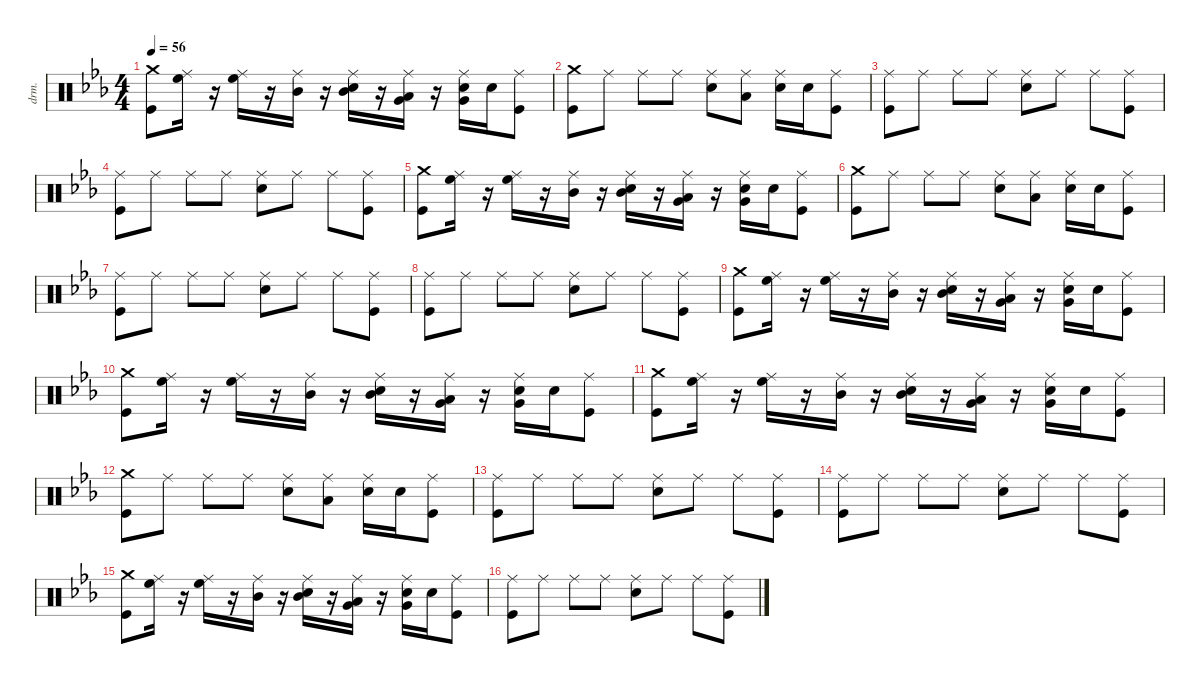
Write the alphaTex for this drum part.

\defaultSystemsLayout 4
\hideDynamics
\bracketExtendMode nobrackets
\otherSystemsTrackNameOrientation horizontal
\track ("Percussion" "drm.") {instrument percussion}
\staff {score}
\articulation defaults
\ts (4 4)
\tempo 56
\clef neutral
\ks eb
("Crash medium (hit)"{acc forcenatural} "Kick (hit)"{acc forcenatural}).8{dy f beam Down} ("High Floor Tom (hit)"{acc forcenatural} "Ride (middle)"{acc forcenatural}).16{beam Down} r.16{beam Down} ("High Floor Tom (hit)"{acc forcenatural} "Ride (middle)"{acc forcenatural}).16{beam Down} r.16{beam Down} ("Mid Tom (hit)"{acc forcenatural} "Ride (middle)"{acc forcenatural}).16{beam Down} r.16{beam Down} ("Mid Tom (hit)"{acc forcenatural} "Snare (hit) 2"{acc forcenatural} "Ride (middle)"{acc forcenatural}).16{beam Down} r.16{beam Down} ("Very Low Tom (hit)"{acc forcenatural} "Low Floor Tom (hit)"{acc forcenatural} "Ride (middle)"{acc forcenatural}).16{beam Down} r.16{beam Down} ("Very Low Tom (hit)"{acc forcenatural} "Snare (hit) 2"{acc forcenatural} "Ride (middle)"{acc forcenatural}).16{beam Down} "Snare (hit) 2"{acc forcenatural}.16{beam Down} ("Kick (hit)"{acc forcenatural} "Ride (middle)"{acc forcenatural}).8{beam Down} |
("Crash medium (hit)"{acc forcenatural} "Kick (hit)"{acc forcenatural}).8{beam Down} "Ride (middle)"{acc forcenatural}.8{beam Down} "Ride (middle)"{acc forcenatural}.8{beam Down} "Ride (middle)"{acc forcenatural}.8{beam Down} ("Snare (hit) 2"{acc forcenatural} "Ride (middle)"{acc forcenatural}).8{beam Down} ("Low Floor Tom (hit)"{acc forcenatural} "Ride (middle)"{acc forcenatural}).8{beam Down} ("Snare (hit) 2"{acc forcenatural} "Ride (middle)"{acc forcenatural}).16{beam Down} "Snare (hit) 2"{acc forcenatural}.16{beam Down} ("Kick (hit)"{acc forcenatural} "Ride (middle)"{acc forcenatural}).8{beam Down} |
("Ride (middle)"{acc forcenatural} "Kick (hit)"{acc forcenatural}).8{beam Down} "Ride (middle)"{acc forcenatural}.8{beam Down} "Ride (middle)"{acc forcenatural}.8{beam Down} "Ride (middle)"{acc forcenatural}.8{beam Down} ("Snare (hit) 2"{acc forcenatural} "Ride (middle)"{acc forcenatural}).8{beam Down} "Ride (middle)"{acc forcenatural}.8{beam Down} "Ride (middle)"{acc forcenatural}.8{beam Down} ("Kick (hit)"{acc forcenatural} "Ride (middle)"{acc forcenatural}).8{beam Down} |
("Ride (middle)"{acc forcenatural} "Kick (hit)"{acc forcenatural}).8{beam Down} "Ride (middle)"{acc forcenatural}.8{beam Down} "Ride (middle)"{acc forcenatural}.8{beam Down} "Ride (middle)"{acc forcenatural}.8{beam Down} ("Snare (hit) 2"{acc forcenatural} "Ride (middle)"{acc forcenatural}).8{beam Down} "Ride (middle)"{acc forcenatural}.8{beam Down} "Ride (middle)"{acc forcenatural}.8{beam Down} ("Kick (hit)"{acc forcenatural} "Ride (middle)"{acc forcenatural}).8{beam Down} |
("Crash medium (hit)"{acc forcenatural} "Kick (hit)"{acc forcenatural}).8{beam Down} ("High Floor Tom (hit)"{acc forcenatural} "Ride (middle)"{acc forcenatural}).16{beam Down} r.16{beam Down} ("High Floor Tom (hit)"{acc forcenatural} "Ride (middle)"{acc forcenatural}).16{beam Down} r.16{beam Down} ("Mid Tom (hit)"{acc forcenatural} "Ride (middle)"{acc forcenatural}).16{beam Down} r.16{beam Down} ("Mid Tom (hit)"{acc forcenatural} "Snare (hit) 2"{acc forcenatural} "Ride (middle)"{acc forcenatural}).16{beam Down} r.16{beam Down} ("Very Low Tom (hit)"{acc forcenatural} "Low Floor Tom (hit)"{acc forcenatural} "Ride (middle)"{acc forcenatural}).16{beam Down} r.16{beam Down} ("Very Low Tom (hit)"{acc forcenatural} "Snare (hit) 2"{acc forcenatural} "Ride (middle)"{acc forcenatural}).16{beam Down} "Snare (hit) 2"{acc forcenatural}.16{beam Down} ("Kick (hit)"{acc forcenatural} "Ride (middle)"{acc forcenatural}).8{beam Down} |
("Crash medium (hit)"{acc forcenatural} "Kick (hit)"{acc forcenatural}).8{beam Down} "Ride (middle)"{acc forcenatural}.8{beam Down} "Ride (middle)"{acc forcenatural}.8{beam Down} "Ride (middle)"{acc forcenatural}.8{beam Down} ("Snare (hit) 2"{acc forcenatural} "Ride (middle)"{acc forcenatural}).8{beam Down} ("Low Floor Tom (hit)"{acc forcenatural} "Ride (middle)"{acc forcenatural}).8{beam Down} ("Snare (hit) 2"{acc forcenatural} "Ride (middle)"{acc forcenatural}).16{beam Down} "Snare (hit) 2"{acc forcenatural}.16{beam Down} ("Kick (hit)"{acc forcenatural} "Ride (middle)"{acc forcenatural}).8{beam Down} |
("Ride (middle)"{acc forcenatural} "Kick (hit)"{acc forcenatural}).8{beam Down} "Ride (middle)"{acc forcenatural}.8{beam Down} "Ride (middle)"{acc forcenatural}.8{beam Down} "Ride (middle)"{acc forcenatural}.8{beam Down} ("Snare (hit) 2"{acc forcenatural} "Ride (middle)"{acc forcenatural}).8{beam Down} "Ride (middle)"{acc forcenatural}.8{beam Down} "Ride (middle)"{acc forcenatural}.8{beam Down} ("Kick (hit)"{acc forcenatural} "Ride (middle)"{acc forcenatural}).8{beam Down} |
("Ride (middle)"{acc forcenatural} "Kick (hit)"{acc forcenatural}).8{beam Down} "Ride (middle)"{acc forcenatural}.8{beam Down} "Ride (middle)"{acc forcenatural}.8{beam Down} "Ride (middle)"{acc forcenatural}.8{beam Down} ("Snare (hit) 2"{acc forcenatural} "Ride (middle)"{acc forcenatural}).8{beam Down} "Ride (middle)"{acc forcenatural}.8{beam Down} "Ride (middle)"{acc forcenatural}.8{beam Down} ("Kick (hit)"{acc forcenatural} "Ride (middle)"{acc forcenatural}).8{beam Down} |
("Crash medium (hit)"{acc forcenatural} "Kick (hit)"{acc forcenatural}).8{beam Down} ("High Floor Tom (hit)"{acc forcenatural} "Ride (middle)"{acc forcenatural}).16{beam Down} r.16{beam Down} ("High Floor Tom (hit)"{acc forcenatural} "Ride (middle)"{acc forcenatural}).16{beam Down} r.16{beam Down} ("Mid Tom (hit)"{acc forcenatural} "Ride (middle)"{acc forcenatural}).16{beam Down} r.16{beam Down} ("Mid Tom (hit)"{acc forcenatural} "Snare (hit) 2"{acc forcenatural} "Ride (middle)"{acc forcenatural}).16{beam Down} r.16{beam Down} ("Very Low Tom (hit)"{acc forcenatural} "Low Floor Tom (hit)"{acc forcenatural} "Ride (middle)"{acc forcenatural}).16{beam Down} r.16{beam Down} ("Very Low Tom (hit)"{acc forcenatural} "Snare (hit) 2"{acc forcenatural} "Ride (middle)"{acc forcenatural}).16{beam Down} "Snare (hit) 2"{acc forcenatural}.16{beam Down} ("Kick (hit)"{acc forcenatural} "Ride (middle)"{acc forcenatural}).8{beam Down} |
("Crash medium (hit)"{acc forcenatural} "Kick (hit)"{acc forcenatural}).8{beam Down} ("High Floor Tom (hit)"{acc forcenatural} "Ride (middle)"{acc forcenatural}).16{beam Down} r.16{beam Down} ("High Floor Tom (hit)"{acc forcenatural} "Ride (middle)"{acc forcenatural}).16{beam Down} r.16{beam Down} ("Mid Tom (hit)"{acc forcenatural} "Ride (middle)"{acc forcenatural}).16{beam Down} r.16{beam Down} ("Mid Tom (hit)"{acc forcenatural} "Snare (hit) 2"{acc forcenatural} "Ride (middle)"{acc forcenatural}).16{beam Down} r.16{beam Down} ("Very Low Tom (hit)"{acc forcenatural} "Low Floor Tom (hit)"{acc forcenatural} "Ride (middle)"{acc forcenatural}).16{beam Down} r.16{beam Down} ("Very Low Tom (hit)"{acc forcenatural} "Snare (hit) 2"{acc forcenatural} "Ride (middle)"{acc forcenatural}).16{beam Down} "Snare (hit) 2"{acc forcenatural}.16{beam Down} ("Kick (hit)"{acc forcenatural} "Ride (middle)"{acc forcenatural}).8{beam Down} |
("Crash medium (hit)"{acc forcenatural} "Kick (hit)"{acc forcenatural}).8{beam Down} ("High Floor Tom (hit)"{acc forcenatural} "Ride (middle)"{acc forcenatural}).16{beam Down} r.16{beam Down} ("High Floor Tom (hit)"{acc forcenatural} "Ride (middle)"{acc forcenatural}).16{beam Down} r.16{beam Down} ("Mid Tom (hit)"{acc forcenatural} "Ride (middle)"{acc forcenatural}).16{beam Down} r.16{beam Down} ("Mid Tom (hit)"{acc forcenatural} "Snare (hit) 2"{acc forcenatural} "Ride (middle)"{acc forcenatural}).16{beam Down} r.16{beam Down} ("Very Low Tom (hit)"{acc forcenatural} "Low Floor Tom (hit)"{acc forcenatural} "Ride (middle)"{acc forcenatural}).16{beam Down} r.16{beam Down} ("Very Low Tom (hit)"{acc forcenatural} "Snare (hit) 2"{acc forcenatural} "Ride (middle)"{acc forcenatural}).16{beam Down} "Snare (hit) 2"{acc forcenatural}.16{beam Down} ("Kick (hit)"{acc forcenatural} "Ride (middle)"{acc forcenatural}).8{beam Down} |
("Crash medium (hit)"{acc forcenatural} "Kick (hit)"{acc forcenatural}).8{beam Down} "Ride (middle)"{acc forcenatural}.8{beam Down} "Ride (middle)"{acc forcenatural}.8{beam Down} "Ride (middle)"{acc forcenatural}.8{beam Down} ("Snare (hit) 2"{acc forcenatural} "Ride (middle)"{acc forcenatural}).8{beam Down} ("Low Floor Tom (hit)"{acc forcenatural} "Ride (middle)"{acc forcenatural}).8{beam Down} ("Snare (hit) 2"{acc forcenatural} "Ride (middle)"{acc forcenatural}).16{beam Down} "Snare (hit) 2"{acc forcenatural}.16{beam Down} ("Kick (hit)"{acc forcenatural} "Ride (middle)"{acc forcenatural}).8{beam Down} |
("Ride (middle)"{acc forcenatural} "Kick (hit)"{acc forcenatural}).8{beam Down} "Ride (middle)"{acc forcenatural}.8{beam Down} "Ride (middle)"{acc forcenatural}.8{beam Down} "Ride (middle)"{acc forcenatural}.8{beam Down} ("Snare (hit) 2"{acc forcenatural} "Ride (middle)"{acc forcenatural}).8{beam Down} "Ride (middle)"{acc forcenatural}.8{beam Down} "Ride (middle)"{acc forcenatural}.8{beam Down} ("Kick (hit)"{acc forcenatural} "Ride (middle)"{acc forcenatural}).8{beam Down} |
("Ride (middle)"{acc forcenatural} "Kick (hit)"{acc forcenatural}).8{beam Down} "Ride (middle)"{acc forcenatural}.8{beam Down} "Ride (middle)"{acc forcenatural}.8{beam Down} "Ride (middle)"{acc forcenatural}.8{beam Down} ("Snare (hit) 2"{acc forcenatural} "Ride (middle)"{acc forcenatural}).8{beam Down} "Ride (middle)"{acc forcenatural}.8{beam Down} "Ride (middle)"{acc forcenatural}.8{beam Down} ("Kick (hit)"{acc forcenatural} "Ride (middle)"{acc forcenatural}).8{beam Down} |
("Crash medium (hit)"{acc forcenatural} "Kick (hit)"{acc forcenatural}).8{beam Down} ("High Floor Tom (hit)"{acc forcenatural} "Ride (middle)"{acc forcenatural}).16{beam Down} r.16{beam Down} ("High Floor Tom (hit)"{acc forcenatural} "Ride (middle)"{acc forcenatural}).16{beam Down} r.16{beam Down} ("Mid Tom (hit)"{acc forcenatural} "Ride (middle)"{acc forcenatural}).16{beam Down} r.16{beam Down} ("Mid Tom (hit)"{acc forcenatural} "Snare (hit) 2"{acc forcenatural} "Ride (middle)"{acc forcenatural}).16{beam Down} r.16{beam Down} ("Very Low Tom (hit)"{acc forcenatural} "Low Floor Tom (hit)"{acc forcenatural} "Ride (middle)"{acc forcenatural}).16{beam Down} r.16{beam Down} ("Very Low Tom (hit)"{acc forcenatural} "Snare (hit) 2"{acc forcenatural} "Ride (middle)"{acc forcenatural}).16{beam Down} "Snare (hit) 2"{acc forcenatural}.16{beam Down} ("Kick (hit)"{acc forcenatural} "Ride (middle)"{acc forcenatural}).8{beam Down} |
("Ride (middle)"{acc forcenatural} "Kick (hit)"{acc forcenatural}).8{beam Down} "Ride (middle)"{acc forcenatural}.8{beam Down} "Ride (middle)"{acc forcenatural}.8{beam Down} "Ride (middle)"{acc forcenatural}.8{beam Down} ("Snare (hit) 2"{acc forcenatural} "Ride (middle)"{acc forcenatural}).8{beam Down} "Ride (middle)"{acc forcenatural}.8{beam Down} "Ride (middle)"{acc forcenatural}.8{beam Down} ("Kick (hit)"{acc forcenatural} "Ride (middle)"{acc forcenatural}).8{beam Down}
